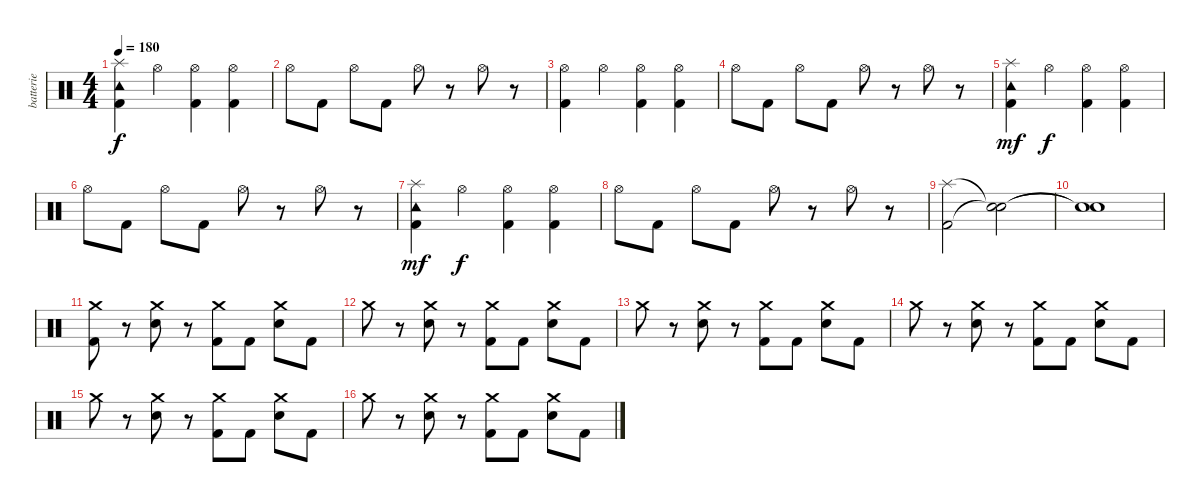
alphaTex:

\track ("batterie" "batterie") {instrument percussion}
\staff {score}
\articulation defaults
\ts (4 4)
\tempo 180
\clef neutral
\ks c
("Splash (hit)" "Tambourine (hit)" "Kick (hit) 2").4{dy f} "Hi-Hat (open)".4 ("Hi-Hat (open)" "Kick (hit) 2").4 ("Hi-Hat (open)" "Kick (hit) 2").4 |
"Hi-Hat (open)".8 "Kick (hit) 2".8 "Hi-Hat (open)".8 "Kick (hit) 2".8 "Hi-Hat (open)".8 r.8 "Hi-Hat (open)".8 r.8 |
("Hi-Hat (open)" "Kick (hit) 2").4 "Hi-Hat (open)".4 ("Hi-Hat (open)" "Kick (hit) 2").4 ("Hi-Hat (open)" "Kick (hit) 2").4 |
"Hi-Hat (open)".8 "Kick (hit) 2".8 "Hi-Hat (open)".8 "Kick (hit) 2".8 "Hi-Hat (open)".8 r.8 "Hi-Hat (open)".8 r.8 |
("Splash (hit)" "Tambourine (hit)" "Kick (hit) 2").4{dy mf} "Hi-Hat (open)".4{dy f} ("Hi-Hat (open)" "Kick (hit) 2").4 ("Hi-Hat (open)" "Kick (hit) 2").4 |
"Hi-Hat (open)".8 "Kick (hit) 2".8 "Hi-Hat (open)".8 "Kick (hit) 2".8 "Hi-Hat (open)".8 r.8 "Hi-Hat (open)".8 r.8 |
("Splash (hit)" "Tambourine (hit)" "Kick (hit) 2").4{dy mf} "Hi-Hat (open)".4{dy f} ("Hi-Hat (open)" "Kick (hit) 2").4 ("Hi-Hat (open)" "Kick (hit) 2").4 |
"Hi-Hat (open)".8 "Kick (hit) 2".8 "Hi-Hat (open)".8 "Kick (hit) 2".8 "Hi-Hat (open)".8 r.8 "Hi-Hat (open)".8 r.8 |
("Splash (hit)" "Kick (hit) 2").2 ("Snare (hit)"{t} "Snare (hit)"{t}).2 |
("Snare (hit)"{t} "Snare (hit)"{t}).1 |
("Crash medium (hit)" "Kick (hit) 2").8 r.8 ("Crash medium (hit)" "Electric Snare (hit)").8 r.8 ("Crash medium (hit)" "Kick (hit) 2").8 "Kick (hit) 2".8 ("Crash medium (hit)" "Electric Snare (hit)").8 "Kick (hit) 2".8 |
"Crash medium (hit)".8 r.8 ("Crash medium (hit)" "Electric Snare (hit)").8 r.8 ("Crash medium (hit)" "Kick (hit) 2").8 "Kick (hit) 2".8 ("Crash medium (hit)" "Electric Snare (hit)").8 "Kick (hit) 2".8 |
"Crash medium (hit)".8 r.8 ("Crash medium (hit)" "Electric Snare (hit)").8 r.8 ("Crash medium (hit)" "Kick (hit) 2").8 "Kick (hit) 2".8 ("Crash medium (hit)" "Electric Snare (hit)").8 "Kick (hit) 2".8 |
"Crash medium (hit)".8 r.8 ("Crash medium (hit)" "Electric Snare (hit)").8 r.8 ("Crash medium (hit)" "Kick (hit) 2").8 "Kick (hit) 2".8 ("Crash medium (hit)" "Electric Snare (hit)").8 "Kick (hit) 2".8 |
"Crash medium (hit)".8 r.8 ("Crash medium (hit)" "Electric Snare (hit)").8 r.8 ("Crash medium (hit)" "Kick (hit) 2").8 "Kick (hit) 2".8 ("Crash medium (hit)" "Electric Snare (hit)").8 "Kick (hit) 2".8 |
"Crash medium (hit)".8 r.8 ("Crash medium (hit)" "Electric Snare (hit)").8 r.8 ("Crash medium (hit)" "Kick (hit) 2").8 "Kick (hit) 2".8 ("Crash medium (hit)" "Electric Snare (hit)").8 "Kick (hit) 2".8
